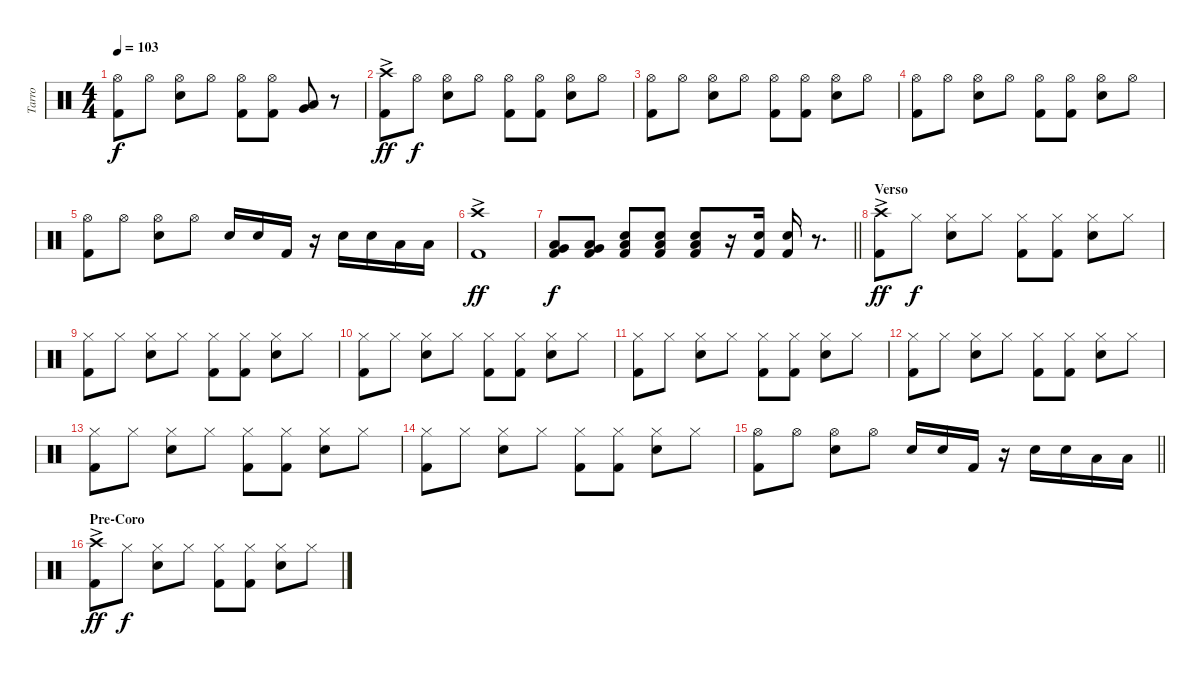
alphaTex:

\track ("Tarro" "Tarro") {instrument percussion}
\staff {score}
\articulation defaults
\ts (4 4)
\tempo 103
\clef neutral
\ks c
("Hi-Hat (open)" "Kick (hit) 2").8{dy f} "Hi-Hat (open)".8 ("Hi-Hat (open)" "Electric Snare (hit)").8 "Hi-Hat (open)".8 ("Hi-Hat (open)" "Kick (hit) 2").8 ("Hi-Hat (open)" "Kick (hit) 2").8 ("Very Low Tom (hit)" "Low Floor Tom (hit)").8 r.8 |
("Crash high (hit)"{ac} "Kick (hit) 2").8{dy ff} "Hi-Hat (open)".8{dy f} ("Hi-Hat (open)" "Electric Snare (hit)").8 "Hi-Hat (open)".8 ("Hi-Hat (open)" "Kick (hit) 2").8 ("Hi-Hat (open)" "Kick (hit) 2").8 ("Hi-Hat (open)" "Electric Snare (hit)").8 "Hi-Hat (open)".8 |
("Hi-Hat (open)" "Kick (hit) 2").8 "Hi-Hat (open)".8 ("Hi-Hat (open)" "Electric Snare (hit)").8 "Hi-Hat (open)".8 ("Hi-Hat (open)" "Kick (hit) 2").8 ("Hi-Hat (open)" "Kick (hit) 2").8 ("Hi-Hat (open)" "Electric Snare (hit)").8 "Hi-Hat (open)".8 |
("Hi-Hat (open)" "Kick (hit) 2").8 "Hi-Hat (open)".8 ("Hi-Hat (open)" "Electric Snare (hit)").8 "Hi-Hat (open)".8 ("Hi-Hat (open)" "Kick (hit) 2").8 ("Hi-Hat (open)" "Kick (hit) 2").8 ("Hi-Hat (open)" "Electric Snare (hit)").8 "Hi-Hat (open)".8 |
("Hi-Hat (open)" "Kick (hit) 2").8 "Hi-Hat (open)".8 ("Hi-Hat (open)" "Electric Snare (hit)").8 "Hi-Hat (open)".8 "Electric Snare (hit)".16 "Electric Snare (hit)".16 "Kick (hit) 2".16 r.16 "Electric Snare (hit)".16 "Electric Snare (hit)".16 "Low Floor Tom (hit)".16 "Low Floor Tom (hit)".16 |
("Crash high (hit)"{ac} "Kick (hit) 2").1{dy ff} |
\barLineRight lightlight
("Low Floor Tom (hit)" "Very Low Tom (hit)" "Kick (hit) 2").8{dy f} ("Low Floor Tom (hit)" "Very Low Tom (hit)" "Kick (hit) 2").8 ("Low Floor Tom (hit)" "Electric Snare (hit)" "Kick (hit) 2").8 ("Low Floor Tom (hit)" "Electric Snare (hit)" "Kick (hit) 2").8 ("Low Floor Tom (hit)" "Electric Snare (hit)" "Kick (hit) 2").8 r.16 ("Electric Snare (hit)" "Kick (hit) 2").16 ("Electric Snare (hit)" "Kick (hit) 2").16 r.8{d} |
\section ("" "Verso")
("Crash high (hit)"{ac} "Kick (hit) 2").8{dy ff} "Hi-Hat (closed)".8{dy f} ("Hi-Hat (closed)" "Electric Snare (hit)").8 "Hi-Hat (closed)".8 ("Hi-Hat (closed)" "Kick (hit) 2").8 ("Hi-Hat (closed)" "Kick (hit) 2").8 ("Hi-Hat (closed)" "Electric Snare (hit)").8 "Hi-Hat (closed)".8 |
("Hi-Hat (closed)" "Kick (hit) 2").8 "Hi-Hat (closed)".8 ("Hi-Hat (closed)" "Electric Snare (hit)").8 "Hi-Hat (closed)".8 ("Hi-Hat (closed)" "Kick (hit) 2").8 ("Hi-Hat (closed)" "Kick (hit) 2").8 ("Hi-Hat (closed)" "Electric Snare (hit)").8 "Hi-Hat (closed)".8 |
("Hi-Hat (closed)" "Kick (hit) 2").8 "Hi-Hat (closed)".8 ("Hi-Hat (closed)" "Electric Snare (hit)").8 "Hi-Hat (closed)".8 ("Hi-Hat (closed)" "Kick (hit) 2").8 ("Hi-Hat (closed)" "Kick (hit) 2").8 ("Hi-Hat (closed)" "Electric Snare (hit)").8 "Hi-Hat (closed)".8 |
("Hi-Hat (closed)" "Kick (hit) 2").8 "Hi-Hat (closed)".8 ("Hi-Hat (closed)" "Electric Snare (hit)").8 "Hi-Hat (closed)".8 ("Hi-Hat (closed)" "Kick (hit) 2").8 ("Hi-Hat (closed)" "Kick (hit) 2").8 ("Hi-Hat (closed)" "Electric Snare (hit)").8 "Hi-Hat (closed)".8 |
("Hi-Hat (closed)" "Kick (hit) 2").8 "Hi-Hat (closed)".8 ("Hi-Hat (closed)" "Electric Snare (hit)").8 "Hi-Hat (closed)".8 ("Hi-Hat (closed)" "Kick (hit) 2").8 ("Hi-Hat (closed)" "Kick (hit) 2").8 ("Hi-Hat (closed)" "Electric Snare (hit)").8 "Hi-Hat (closed)".8 |
("Hi-Hat (closed)" "Kick (hit) 2").8 "Hi-Hat (closed)".8 ("Hi-Hat (closed)" "Electric Snare (hit)").8 "Hi-Hat (closed)".8 ("Hi-Hat (closed)" "Kick (hit) 2").8 ("Hi-Hat (closed)" "Kick (hit) 2").8 ("Hi-Hat (closed)" "Electric Snare (hit)").8 "Hi-Hat (closed)".8 |
("Hi-Hat (closed)" "Kick (hit) 2").8 "Hi-Hat (closed)".8 ("Hi-Hat (closed)" "Electric Snare (hit)").8 "Hi-Hat (closed)".8 ("Hi-Hat (closed)" "Kick (hit) 2").8 ("Hi-Hat (closed)" "Kick (hit) 2").8 ("Hi-Hat (closed)" "Electric Snare (hit)").8 "Hi-Hat (closed)".8 |
\barLineRight lightlight
("Hi-Hat (open)" "Kick (hit) 2").8 "Hi-Hat (open)".8 ("Hi-Hat (open)" "Electric Snare (hit)").8 "Hi-Hat (open)".8 "Electric Snare (hit)".16 "Electric Snare (hit)".16 "Kick (hit) 2".16 r.16 "Electric Snare (hit)".16 "Electric Snare (hit)".16 "Low Floor Tom (hit)".16 "Low Floor Tom (hit)".16 |
\section ("" "Pre-Coro")
("Crash high (hit)"{ac} "Kick (hit) 2").8{dy ff} "Hi-Hat (closed)".8{dy f} ("Hi-Hat (closed)" "Electric Snare (hit)").8 "Hi-Hat (closed)".8 ("Hi-Hat (closed)" "Kick (hit) 2").8 ("Hi-Hat (closed)" "Kick (hit) 2").8 ("Hi-Hat (closed)" "Electric Snare (hit)").8 "Hi-Hat (closed)".8
